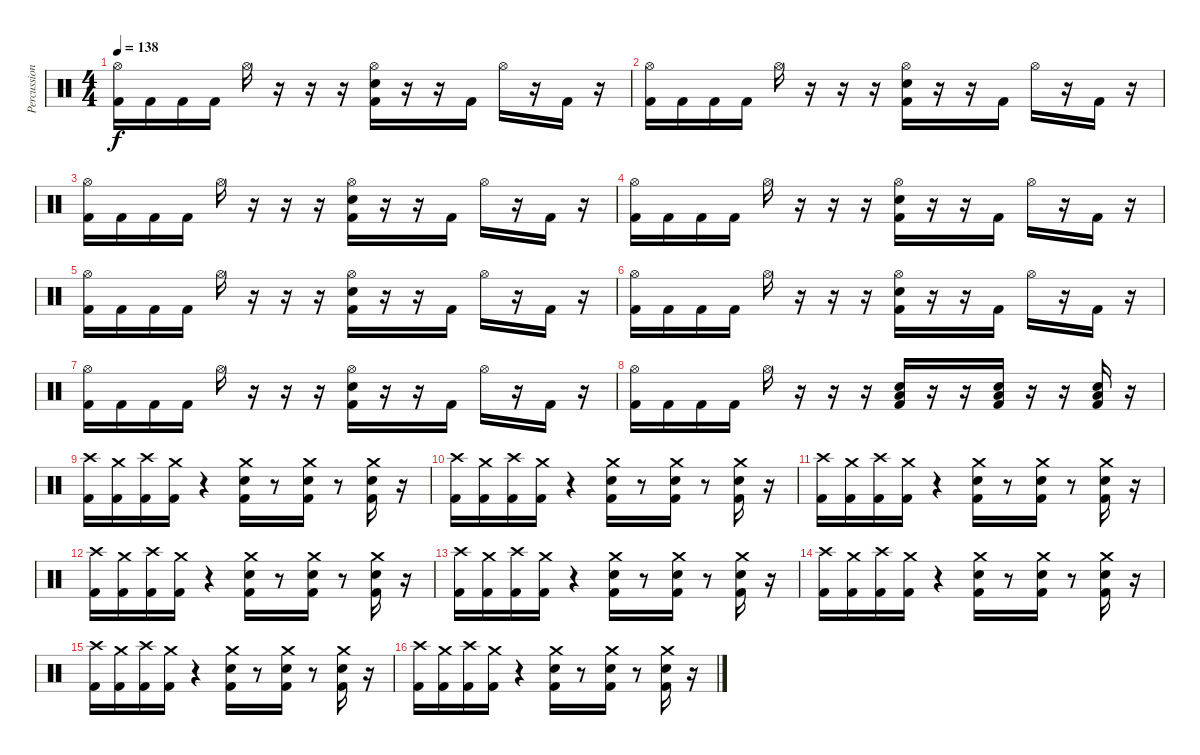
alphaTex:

\track ("Percussion" "Percussion") {instrument percussion}
\staff {score}
\articulation defaults
\ts (4 4)
\tempo 138
\clef neutral
\ks c
("Hi-Hat (open)" "Kick (hit) 2").16{dy f} "Kick (hit) 2".16 "Kick (hit) 2".16 "Kick (hit) 2".16 "Hi-Hat (open)".16 r.16 r.16 r.16 ("Hi-Hat (open)" "Electric Snare (hit)" "Kick (hit) 2").16 r.16 r.16 "Kick (hit) 2".16 "Hi-Hat (open)".16 r.16 "Kick (hit) 2".16 r.16 |
("Hi-Hat (open)" "Kick (hit) 2").16 "Kick (hit) 2".16 "Kick (hit) 2".16 "Kick (hit) 2".16 "Hi-Hat (open)".16 r.16 r.16 r.16 ("Hi-Hat (open)" "Electric Snare (hit)" "Kick (hit) 2").16 r.16 r.16 "Kick (hit) 2".16 "Hi-Hat (open)".16 r.16 "Kick (hit) 2".16 r.16 |
("Hi-Hat (open)" "Kick (hit) 2").16 "Kick (hit) 2".16 "Kick (hit) 2".16 "Kick (hit) 2".16 "Hi-Hat (open)".16 r.16 r.16 r.16 ("Hi-Hat (open)" "Electric Snare (hit)" "Kick (hit) 2").16 r.16 r.16 "Kick (hit) 2".16 "Hi-Hat (open)".16 r.16 "Kick (hit) 2".16 r.16 |
("Hi-Hat (open)" "Kick (hit) 2").16 "Kick (hit) 2".16 "Kick (hit) 2".16 "Kick (hit) 2".16 "Hi-Hat (open)".16 r.16 r.16 r.16 ("Hi-Hat (open)" "Electric Snare (hit)" "Kick (hit) 2").16 r.16 r.16 "Kick (hit) 2".16 "Hi-Hat (open)".16 r.16 "Kick (hit) 2".16 r.16 |
("Hi-Hat (open)" "Kick (hit) 2").16 "Kick (hit) 2".16 "Kick (hit) 2".16 "Kick (hit) 2".16 "Hi-Hat (open)".16 r.16 r.16 r.16 ("Hi-Hat (open)" "Electric Snare (hit)" "Kick (hit) 2").16 r.16 r.16 "Kick (hit) 2".16 "Hi-Hat (open)".16 r.16 "Kick (hit) 2".16 r.16 |
("Hi-Hat (open)" "Kick (hit) 2").16 "Kick (hit) 2".16 "Kick (hit) 2".16 "Kick (hit) 2".16 "Hi-Hat (open)".16 r.16 r.16 r.16 ("Hi-Hat (open)" "Electric Snare (hit)" "Kick (hit) 2").16 r.16 r.16 "Kick (hit) 2".16 "Hi-Hat (open)".16 r.16 "Kick (hit) 2".16 r.16 |
("Hi-Hat (open)" "Kick (hit) 2").16 "Kick (hit) 2".16 "Kick (hit) 2".16 "Kick (hit) 2".16 "Hi-Hat (open)".16 r.16 r.16 r.16 ("Hi-Hat (open)" "Electric Snare (hit)" "Kick (hit) 2").16 r.16 r.16 "Kick (hit) 2".16 "Hi-Hat (open)".16 r.16 "Kick (hit) 2".16 r.16 |
("Hi-Hat (open)" "Kick (hit) 2").16 "Kick (hit) 2".16 "Kick (hit) 2".16 "Kick (hit) 2".16 "Hi-Hat (open)".16 r.16 r.16 r.16 ("Electric Snare (hit)" "Low Tom (hit)" "Kick (hit) 2").16 r.16 r.16 ("Electric Snare (hit)" "Low Tom (hit)" "Kick (hit) 2").16 r.16 r.16 ("Electric Snare (hit)" "Low Tom (hit)" "Kick (hit) 2").16 r.16 |
("Crash high (hit)" "Kick (hit) 2").16 ("Crash medium (hit)" "Kick (hit) 2").16 ("Crash high (hit)" "Kick (hit) 2").16 ("Crash medium (hit)" "Kick (hit) 2").16 r.4 ("Crash medium (hit)" "Electric Snare (hit)" "Kick (hit) 2").16 r.8 ("Crash medium (hit)" "Electric Snare (hit)" "Kick (hit) 2").16 r.8 ("Crash medium (hit)" "Electric Snare (hit)" "Kick (hit) 2").16 r.16 |
("Crash high (hit)" "Kick (hit) 2").16 ("Crash medium (hit)" "Kick (hit) 2").16 ("Crash high (hit)" "Kick (hit) 2").16 ("Crash medium (hit)" "Kick (hit) 2").16 r.4 ("Crash medium (hit)" "Electric Snare (hit)" "Kick (hit) 2").16 r.8 ("Crash medium (hit)" "Electric Snare (hit)" "Kick (hit) 2").16 r.8 ("Crash medium (hit)" "Electric Snare (hit)" "Kick (hit) 2").16 r.16 |
("Crash high (hit)" "Kick (hit) 2").16 ("Crash medium (hit)" "Kick (hit) 2").16 ("Crash high (hit)" "Kick (hit) 2").16 ("Crash medium (hit)" "Kick (hit) 2").16 r.4 ("Crash medium (hit)" "Electric Snare (hit)" "Kick (hit) 2").16 r.8 ("Crash medium (hit)" "Electric Snare (hit)" "Kick (hit) 2").16 r.8 ("Crash medium (hit)" "Electric Snare (hit)" "Kick (hit) 2").16 r.16 |
("Crash high (hit)" "Kick (hit) 2").16 ("Crash medium (hit)" "Kick (hit) 2").16 ("Crash high (hit)" "Kick (hit) 2").16 ("Crash medium (hit)" "Kick (hit) 2").16 r.4 ("Crash medium (hit)" "Electric Snare (hit)" "Kick (hit) 2").16 r.8 ("Crash medium (hit)" "Electric Snare (hit)" "Kick (hit) 2").16 r.8 ("Crash medium (hit)" "Electric Snare (hit)" "Kick (hit) 2").16 r.16 |
("Crash high (hit)" "Kick (hit) 2").16 ("Crash medium (hit)" "Kick (hit) 2").16 ("Crash high (hit)" "Kick (hit) 2").16 ("Crash medium (hit)" "Kick (hit) 2").16 r.4 ("Crash medium (hit)" "Electric Snare (hit)" "Kick (hit) 2").16 r.8 ("Crash medium (hit)" "Electric Snare (hit)" "Kick (hit) 2").16 r.8 ("Crash medium (hit)" "Electric Snare (hit)" "Kick (hit) 2").16 r.16 |
("Crash high (hit)" "Kick (hit) 2").16 ("Crash medium (hit)" "Kick (hit) 2").16 ("Crash high (hit)" "Kick (hit) 2").16 ("Crash medium (hit)" "Kick (hit) 2").16 r.4 ("Crash medium (hit)" "Electric Snare (hit)" "Kick (hit) 2").16 r.8 ("Crash medium (hit)" "Electric Snare (hit)" "Kick (hit) 2").16 r.8 ("Crash medium (hit)" "Electric Snare (hit)" "Kick (hit) 2").16 r.16 |
("Crash high (hit)" "Kick (hit) 2").16 ("Crash medium (hit)" "Kick (hit) 2").16 ("Crash high (hit)" "Kick (hit) 2").16 ("Crash medium (hit)" "Kick (hit) 2").16 r.4 ("Crash medium (hit)" "Electric Snare (hit)" "Kick (hit) 2").16 r.8 ("Crash medium (hit)" "Electric Snare (hit)" "Kick (hit) 2").16 r.8 ("Crash medium (hit)" "Electric Snare (hit)" "Kick (hit) 2").16 r.16 |
("Crash high (hit)" "Kick (hit) 2").16 ("Crash medium (hit)" "Kick (hit) 2").16 ("Crash high (hit)" "Kick (hit) 2").16 ("Crash medium (hit)" "Kick (hit) 2").16 r.4 ("Crash medium (hit)" "Electric Snare (hit)" "Kick (hit) 2").16 r.8 ("Crash medium (hit)" "Electric Snare (hit)" "Kick (hit) 2").16 r.8 ("Crash medium (hit)" "Electric Snare (hit)" "Kick (hit) 2").16 r.16
